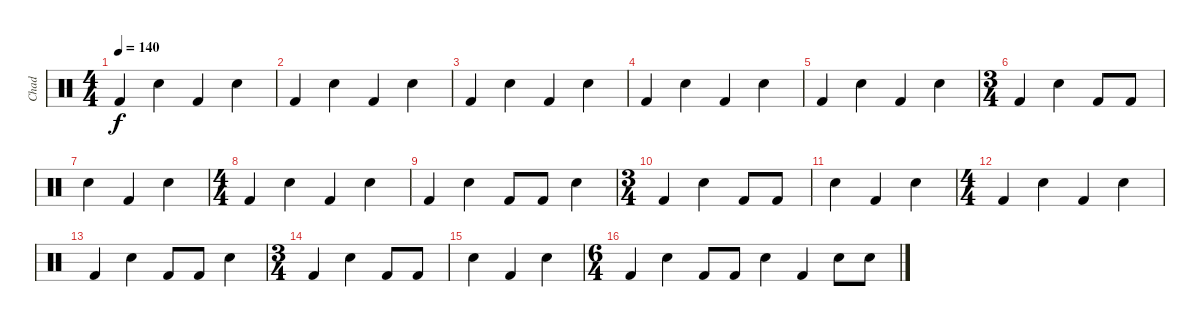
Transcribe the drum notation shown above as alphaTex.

\track ("Chad" "Chad") {instrument percussion}
\staff {score}
\articulation defaults
\ts (4 4)
\tempo 140
\clef neutral
\ks c "Kick (hit) 2".4{dy f} "Electric Snare (hit)".4 "Kick (hit) 2".4 "Electric Snare (hit)".4
|
"Kick (hit) 2".4 "Electric Snare (hit)".4 "Kick (hit) 2".4 "Electric Snare (hit)".4 |
"Kick (hit) 2".4 "Electric Snare (hit)".4 "Kick (hit) 2".4 "Electric Snare (hit)".4 |
"Kick (hit) 2".4 "Electric Snare (hit)".4 "Kick (hit) 2".4 "Electric Snare (hit)".4 |
"Kick (hit) 2".4 "Electric Snare (hit)".4 "Kick (hit) 2".4 "Electric Snare (hit)".4 |
\ts (3 4)
"Kick (hit) 2".4 "Electric Snare (hit)".4 "Kick (hit) 2".8 "Kick (hit) 2".8 |
"Electric Snare (hit)".4 "Kick (hit) 2".4 "Electric Snare (hit)".4 |
\ts (4 4)
"Kick (hit) 2".4 "Electric Snare (hit)".4 "Kick (hit) 2".4 "Electric Snare (hit)".4 |
"Kick (hit) 2".4 "Electric Snare (hit)".4 "Kick (hit) 2".8 "Kick (hit) 2".8 "Electric Snare (hit)".4 |
\ts (3 4)
"Kick (hit) 2".4 "Electric Snare (hit)".4 "Kick (hit) 2".8 "Kick (hit) 2".8 |
"Electric Snare (hit)".4 "Kick (hit) 2".4 "Electric Snare (hit)".4 |
\ts (4 4)
"Kick (hit) 2".4 "Electric Snare (hit)".4 "Kick (hit) 2".4 "Electric Snare (hit)".4 |
"Kick (hit) 2".4 "Electric Snare (hit)".4 "Kick (hit) 2".8 "Kick (hit) 2".8 "Electric Snare (hit)".4 |
\ts (3 4)
"Kick (hit) 2".4 "Electric Snare (hit)".4 "Kick (hit) 2".8 "Kick (hit) 2".8 |
"Electric Snare (hit)".4 "Kick (hit) 2".4 "Electric Snare (hit)".4 |
\ts (6 4)
"Kick (hit) 2".4 "Electric Snare (hit)".4 "Kick (hit) 2".8 "Kick (hit) 2".8 "Electric Snare (hit)".4 "Kick (hit) 2".4 "Electric Snare (hit)".8 "Electric Snare (hit)".8
